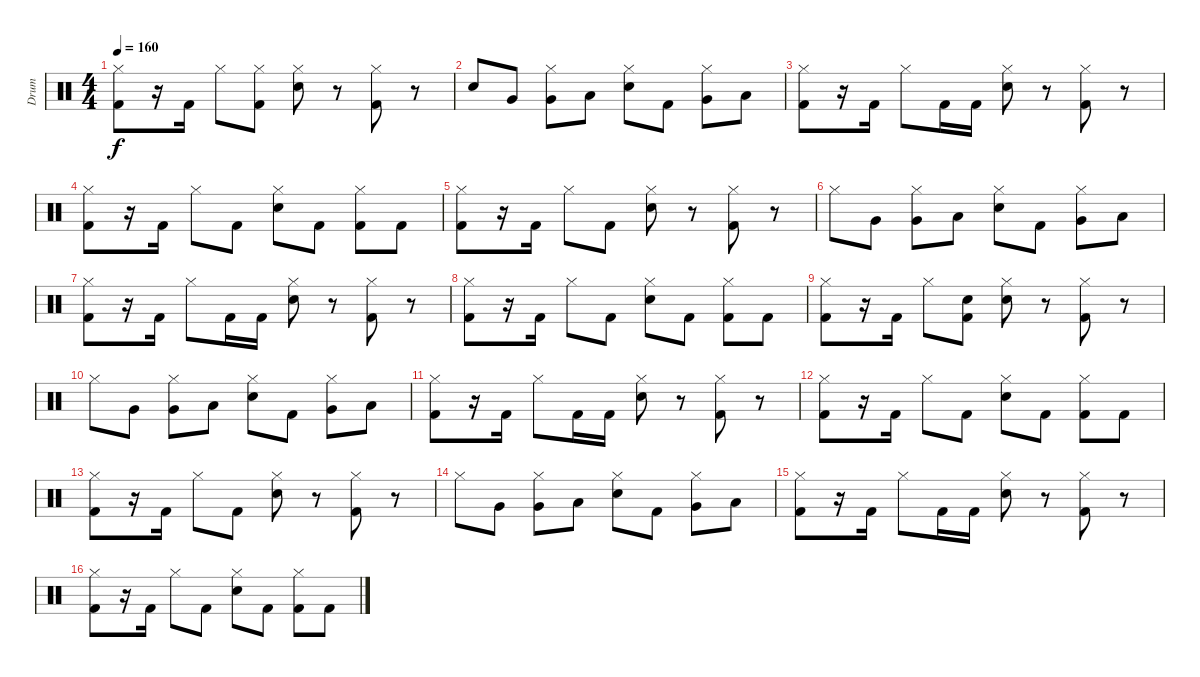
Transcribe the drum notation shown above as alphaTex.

\track ("Drum" "Drum") {instrument percussion}
\staff {score}
\articulation defaults
\ts (4 4)
\tempo 160
\clef neutral
\ks c
("Hi-Hat (closed)" "Kick (hit) 2").8{dy f} r.16 "Kick (hit) 2".16 "Hi-Hat (closed)".8 ("Hi-Hat (closed)" "Kick (hit) 2").8 ("Electric Snare (hit)" "Hi-Hat (closed)").8 r.8 ("Kick (hit) 2" "Hi-Hat (closed)").8 r.8 |
"Snare (hit)".8 "Very Low Tom (hit)".8 ("Very Low Tom (hit)" "Hi-Hat (closed)").8 "Low Floor Tom (hit)".8 ("Electric Snare (hit)" "Hi-Hat (closed)").8 "Kick (hit) 2".8 ("Hi-Hat (closed)" "Very Low Tom (hit)").8 "Low Floor Tom (hit)".8 |
("Hi-Hat (closed)" "Kick (hit) 2").8 r.16 "Kick (hit) 2".16 "Hi-Hat (closed)".8 "Kick (hit) 2".16 "Kick (hit) 2".16 ("Hi-Hat (closed)" "Electric Snare (hit)").8 r.8 ("Kick (hit) 2" "Hi-Hat (closed)").8 r.8 |
("Hi-Hat (closed)" "Kick (hit) 2").8 r.16 "Kick (hit) 2".16 "Hi-Hat (closed)".8 "Kick (hit) 2".8 ("Electric Snare (hit)" "Hi-Hat (closed)").8 "Kick (hit) 2".8 ("Hi-Hat (closed)" "Kick (hit) 2").8 "Kick (hit) 2".8 |
("Kick (hit) 2" "Hi-Hat (closed)").8 r.16 "Kick (hit) 2".16 "Hi-Hat (closed)".8 "Kick (hit) 2".8 ("Electric Snare (hit)" "Hi-Hat (closed)").8 r.8 ("Kick (hit) 2" "Hi-Hat (closed)").8 r.8 |
"Hi-Hat (closed)".8 "Very Low Tom (hit)".8 ("Very Low Tom (hit)" "Hi-Hat (closed)").8 "Low Floor Tom (hit)".8 ("Electric Snare (hit)" "Hi-Hat (closed)").8 "Kick (hit) 2".8 ("Hi-Hat (closed)" "Very Low Tom (hit)").8 "Low Floor Tom (hit)".8 |
("Hi-Hat (closed)" "Kick (hit) 2").8 r.16 "Kick (hit) 2".16 "Hi-Hat (closed)".8 "Kick (hit) 2".16 "Kick (hit) 2".16 ("Electric Snare (hit)" "Hi-Hat (closed)").8 r.8 ("Hi-Hat (closed)" "Kick (hit) 2").8 r.8 |
("Hi-Hat (closed)" "Kick (hit) 2").8 r.16 "Kick (hit) 2".16 "Hi-Hat (closed)".8 "Kick (hit) 2".8 ("Hi-Hat (closed)" "Electric Snare (hit)").8 "Kick (hit) 2".8 ("Kick (hit) 2" "Hi-Hat (closed)").8 "Kick (hit) 2".8 |
("Kick (hit) 2" "Hi-Hat (closed)").8 r.16 "Kick (hit) 2".16 "Hi-Hat (closed)".8 ("Kick (hit) 2" "Snare (hit)").8 ("Hi-Hat (closed)" "Electric Snare (hit)").8 r.8 ("Kick (hit) 2" "Hi-Hat (closed)").8 r.8 |
"Hi-Hat (closed)".8 "Very Low Tom (hit)".8 ("Very Low Tom (hit)" "Hi-Hat (closed)").8 "Low Floor Tom (hit)".8 ("Hi-Hat (closed)" "Electric Snare (hit)").8 "Kick (hit) 2".8 ("Hi-Hat (closed)" "Very Low Tom (hit)").8 "Low Floor Tom (hit)".8 |
("Hi-Hat (closed)" "Kick (hit) 2").8 r.16 "Kick (hit) 2".16 "Hi-Hat (closed)".8 "Kick (hit) 2".16 "Kick (hit) 2".16 ("Hi-Hat (closed)" "Electric Snare (hit)").8 r.8 ("Hi-Hat (closed)" "Kick (hit) 2").8 r.8 |
("Hi-Hat (closed)" "Kick (hit) 2").8 r.16 "Kick (hit) 2".16 "Hi-Hat (closed)".8 "Kick (hit) 2".8 ("Hi-Hat (closed)" "Electric Snare (hit)").8 "Kick (hit) 2".8 ("Hi-Hat (closed)" "Kick (hit) 2").8 "Kick (hit) 2".8 |
("Hi-Hat (closed)" "Kick (hit) 2").8 r.16 "Kick (hit) 2".16 "Hi-Hat (closed)".8 "Kick (hit) 2".8 ("Electric Snare (hit)" "Hi-Hat (closed)").8 r.8 ("Hi-Hat (closed)" "Kick (hit) 2").8 r.8 |
"Hi-Hat (closed)".8 "Very Low Tom (hit)".8 ("Very Low Tom (hit)" "Hi-Hat (closed)").8 "Low Floor Tom (hit)".8 ("Hi-Hat (closed)" "Electric Snare (hit)").8 "Kick (hit) 2".8 ("Very Low Tom (hit)" "Hi-Hat (closed)").8 "Low Floor Tom (hit)".8 |
("Kick (hit) 2" "Hi-Hat (closed)").8 r.16 "Kick (hit) 2".16 "Hi-Hat (closed)".8 "Kick (hit) 2".16 "Kick (hit) 2".16 ("Electric Snare (hit)" "Hi-Hat (closed)").8 r.8 ("Kick (hit) 2" "Hi-Hat (closed)").8 r.8 |
("Hi-Hat (closed)" "Kick (hit) 2").8 r.16 "Kick (hit) 2".16 "Hi-Hat (closed)".8 "Kick (hit) 2".8 ("Electric Snare (hit)" "Hi-Hat (closed)").8 "Kick (hit) 2".8 ("Kick (hit) 2" "Hi-Hat (closed)").8 "Kick (hit) 2".8
